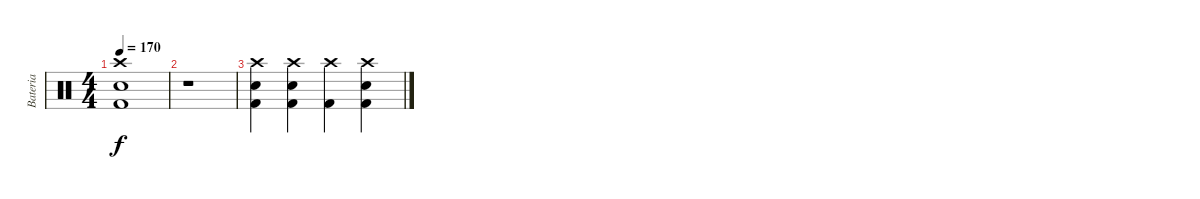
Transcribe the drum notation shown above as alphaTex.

\track ("Bateria" "Bateria") {instrument percussion}
\staff {score}
\articulation defaults
\ts (4 4)
\tempo 170
\clef neutral
\ks c
("Crash high (hit)" "Snare (hit) 2" "Kick (hit) 2").1{dy f} |
r.1 |
("Crash high (hit)" "Snare (hit) 2" "Kick (hit) 2").4 ("Crash high (hit)" "Snare (hit) 2" "Kick (hit) 2").4 ("Crash high (hit)" "Kick (hit) 2").4 ("Crash high (hit)" "Snare (hit) 2" "Kick (hit) 2").4
